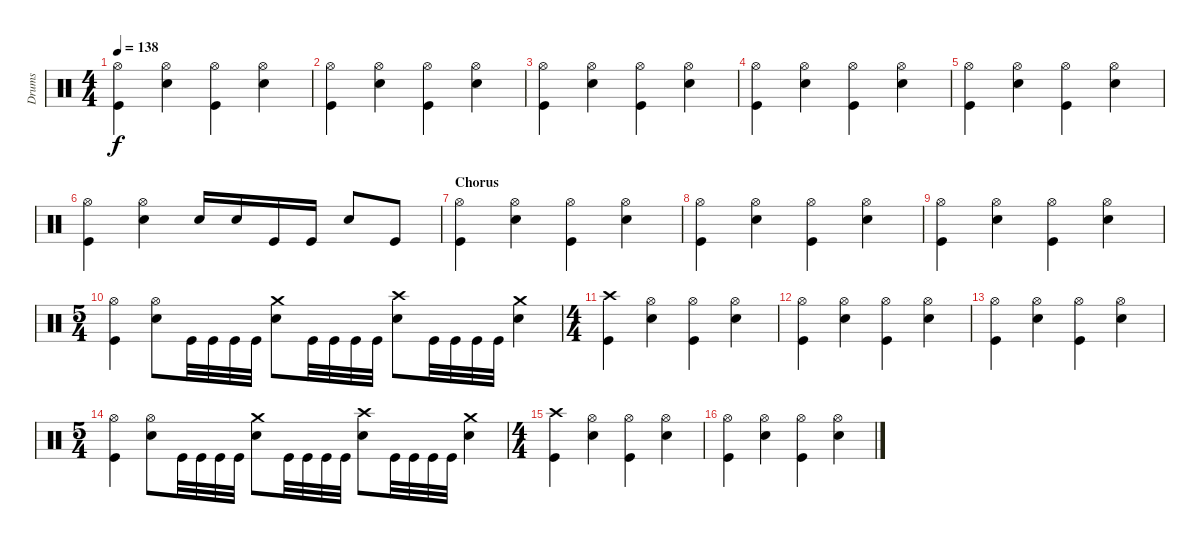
\track ("Drums" "Drums") {instrument percussion}
\staff {score}
\articulation defaults
\ts (4 4)
\tempo 138
\clef neutral
\ks c
("Hi-Hat (open)" "Kick (hit)").4{dy f} ("Hi-Hat (open)" "Electric Snare (hit)").4 ("Hi-Hat (open)" "Kick (hit)").4 ("Hi-Hat (open)" "Electric Snare (hit)").4 |
("Hi-Hat (open)" "Kick (hit)").4 ("Hi-Hat (open)" "Electric Snare (hit)").4 ("Hi-Hat (open)" "Kick (hit)").4 ("Hi-Hat (open)" "Electric Snare (hit)").4 |
("Hi-Hat (open)" "Kick (hit)").4 ("Hi-Hat (open)" "Electric Snare (hit)").4 ("Hi-Hat (open)" "Kick (hit)").4 ("Hi-Hat (open)" "Electric Snare (hit)").4 |
("Hi-Hat (open)" "Kick (hit)").4 ("Hi-Hat (open)" "Electric Snare (hit)").4 ("Hi-Hat (open)" "Kick (hit)").4 ("Hi-Hat (open)" "Electric Snare (hit)").4 |
("Hi-Hat (open)" "Kick (hit)").4 ("Hi-Hat (open)" "Electric Snare (hit)").4 ("Hi-Hat (open)" "Kick (hit)").4 ("Hi-Hat (open)" "Electric Snare (hit)").4 |
("Hi-Hat (open)" "Kick (hit)").4 ("Hi-Hat (open)" "Electric Snare (hit)").4 "Electric Snare (hit)".16 "Electric Snare (hit)".16 "Kick (hit)".16 "Kick (hit)".16 "Electric Snare (hit)".8 "Kick (hit)".8 |
\section ("" "Chorus")
("Hi-Hat (open)" "Kick (hit)").4 ("Hi-Hat (open)" "Electric Snare (hit)").4 ("Hi-Hat (open)" "Kick (hit)").4 ("Hi-Hat (open)" "Electric Snare (hit)").4 |
("Hi-Hat (open)" "Kick (hit)").4 ("Hi-Hat (open)" "Electric Snare (hit)").4 ("Hi-Hat (open)" "Kick (hit)").4 ("Hi-Hat (open)" "Electric Snare (hit)").4 |
("Hi-Hat (open)" "Kick (hit)").4 ("Hi-Hat (open)" "Electric Snare (hit)").4 ("Hi-Hat (open)" "Kick (hit)").4 ("Hi-Hat (open)" "Electric Snare (hit)").4 |
\ts (5 4)
("Hi-Hat (open)" "Kick (hit)").4 ("Hi-Hat (open)" "Electric Snare (hit)").8 "Kick (hit)".32 "Kick (hit)".32 "Kick (hit)".32 "Kick (hit)".32 ("Crash medium (hit)" "Electric Snare (hit)").8 "Kick (hit)".32 "Kick (hit)".32 "Kick (hit)".32 "Kick (hit)".32 ("Crash high (hit)" "Electric Snare (hit)").8 "Kick (hit)".32 "Kick (hit)".32 "Kick (hit)".32 "Kick (hit)".32 ("Crash medium (hit)" "Electric Snare (hit)").4 |
\ts (4 4)
("Crash high (hit)" "Kick (hit)").4 ("Hi-Hat (open)" "Electric Snare (hit)").4 ("Hi-Hat (open)" "Kick (hit)").4 ("Hi-Hat (open)" "Electric Snare (hit)").4 |
("Hi-Hat (open)" "Kick (hit)").4 ("Hi-Hat (open)" "Electric Snare (hit)").4 ("Hi-Hat (open)" "Kick (hit)").4 ("Hi-Hat (open)" "Electric Snare (hit)").4 |
("Hi-Hat (open)" "Kick (hit)").4 ("Hi-Hat (open)" "Electric Snare (hit)").4 ("Hi-Hat (open)" "Kick (hit)").4 ("Hi-Hat (open)" "Electric Snare (hit)").4 |
\ts (5 4)
("Hi-Hat (open)" "Kick (hit)").4 ("Hi-Hat (open)" "Electric Snare (hit)").8 "Kick (hit)".32 "Kick (hit)".32 "Kick (hit)".32 "Kick (hit)".32 ("Crash medium (hit)" "Electric Snare (hit)").8 "Kick (hit)".32 "Kick (hit)".32 "Kick (hit)".32 "Kick (hit)".32 ("Crash high (hit)" "Electric Snare (hit)").8 "Kick (hit)".32 "Kick (hit)".32 "Kick (hit)".32 "Kick (hit)".32 ("Crash medium (hit)" "Electric Snare (hit)").4 |
\ts (4 4)
("Crash high (hit)" "Kick (hit)").4 ("Hi-Hat (open)" "Electric Snare (hit)").4 ("Hi-Hat (open)" "Kick (hit)").4 ("Hi-Hat (open)" "Electric Snare (hit)").4 |
("Hi-Hat (open)" "Kick (hit)").4 ("Hi-Hat (open)" "Electric Snare (hit)").4 ("Hi-Hat (open)" "Kick (hit)").4 ("Hi-Hat (open)" "Electric Snare (hit)").4
